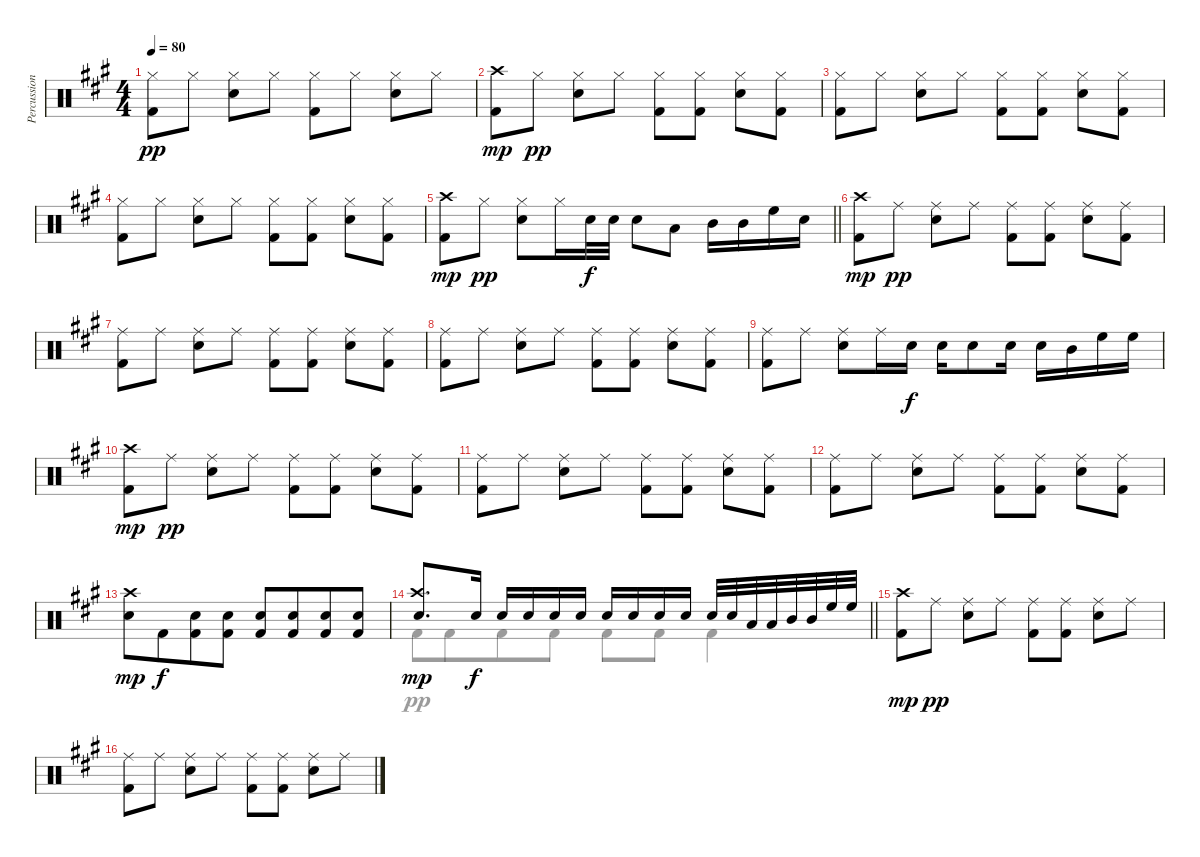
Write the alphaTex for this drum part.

\track ("Percussion" "Percussion") {instrument percussion}
\staff {score}
\articulation defaults
\voice
\ts (4 4)
\tempo 80
\clef neutral
\ks a
("Hi-Hat (closed)" "Kick (hit) 2").8{dy pp} "Hi-Hat (closed)".8 ("Hi-Hat (closed)" "Electric Snare (hit)").8 "Hi-Hat (closed)".8 ("Hi-Hat (closed)" "Kick (hit) 2").8 "Hi-Hat (closed)".8 ("Hi-Hat (closed)" "Electric Snare (hit)").8 "Hi-Hat (closed)".8 |
("Crash high (hit)" "Kick (hit) 2").8{dy mp} "Hi-Hat (closed)".8{dy pp} ("Hi-Hat (closed)" "Electric Snare (hit)").8 "Hi-Hat (closed)".8 ("Hi-Hat (closed)" "Kick (hit) 2").8 ("Hi-Hat (closed)" "Kick (hit) 2").8 ("Hi-Hat (closed)" "Electric Snare (hit)").8 ("Hi-Hat (closed)" "Kick (hit) 2").8 |
("Hi-Hat (closed)" "Kick (hit) 2").8 "Hi-Hat (closed)".8 ("Hi-Hat (closed)" "Electric Snare (hit)").8 "Hi-Hat (closed)".8 ("Hi-Hat (closed)" "Kick (hit) 2").8 ("Hi-Hat (closed)" "Kick (hit) 2").8 ("Hi-Hat (closed)" "Electric Snare (hit)").8 ("Hi-Hat (closed)" "Kick (hit) 2").8 |
("Hi-Hat (closed)" "Kick (hit) 2").8 "Hi-Hat (closed)".8 ("Hi-Hat (closed)" "Electric Snare (hit)").8 "Hi-Hat (closed)".8 ("Hi-Hat (closed)" "Kick (hit) 2").8 ("Hi-Hat (closed)" "Kick (hit) 2").8 ("Hi-Hat (closed)" "Electric Snare (hit)").8 ("Hi-Hat (closed)" "Kick (hit) 2").8 |
\barLineRight lightlight
("Crash high (hit)" "Kick (hit) 2").8{dy mp} "Hi-Hat (closed)".8{dy pp} ("Hi-Hat (closed)" "Electric Snare (hit)").8 "Hi-Hat (closed)".16 "Electric Snare (hit)".32{dy f} "Electric Snare (hit)".32 "Electric Snare (hit)".8 "Low Tom (hit)".8 "Mid Tom (hit)".16 "Mid Tom (hit)".16 "High Floor Tom (hit)".16 "Electric Snare (hit)".16 |
("Crash high (hit)" "Kick (hit) 2").8{dy mp} "Ride (middle)".8{dy pp} ("Ride (middle)" "Electric Snare (hit)").8 "Ride (middle)".8 ("Ride (middle)" "Kick (hit) 2").8 ("Ride (middle)" "Kick (hit) 2").8 ("Ride (middle)" "Electric Snare (hit)").8 ("Ride (middle)" "Kick (hit) 2").8 |
("Ride (middle)" "Kick (hit) 2").8 "Ride (middle)".8 ("Ride (middle)" "Electric Snare (hit)").8 "Ride (middle)".8 ("Ride (middle)" "Kick (hit) 2").8 ("Ride (middle)" "Kick (hit) 2").8 ("Ride (middle)" "Electric Snare (hit)").8 ("Ride (middle)" "Kick (hit) 2").8 |
("Ride (middle)" "Kick (hit) 2").8 "Ride (middle)".8 ("Ride (middle)" "Electric Snare (hit)").8 "Ride (middle)".8 ("Ride (middle)" "Kick (hit) 2").8 ("Ride (middle)" "Kick (hit) 2").8 ("Ride (middle)" "Electric Snare (hit)").8 ("Ride (middle)" "Kick (hit) 2").8 |
("Ride (middle)" "Kick (hit) 2").8 "Ride (middle)".8 ("Ride (middle)" "Electric Snare (hit)").8 "Ride (middle)".16 "Electric Snare (hit)".16{dy f} "Electric Snare (hit)".16 "Electric Snare (hit)".8 "Electric Snare (hit)".16 "Electric Snare (hit)".16 "Mid Tom (hit)".16 "High Floor Tom (hit)".16 "High Floor Tom (hit)".16 |
("Crash high (hit)" "Kick (hit) 2").8{dy mp} "Ride (middle)".8{dy pp} ("Ride (middle)" "Electric Snare (hit)").8 "Ride (middle)".8 ("Ride (middle)" "Kick (hit) 2").8 ("Ride (middle)" "Kick (hit) 2").8 ("Ride (middle)" "Electric Snare (hit)").8 ("Ride (middle)" "Kick (hit) 2").8 |
("Ride (middle)" "Kick (hit) 2").8 "Ride (middle)".8 ("Ride (middle)" "Electric Snare (hit)").8 "Ride (middle)".8 ("Ride (middle)" "Kick (hit) 2").8 ("Ride (middle)" "Kick (hit) 2").8 ("Ride (middle)" "Electric Snare (hit)").8 ("Ride (middle)" "Kick (hit) 2").8 |
("Ride (middle)" "Kick (hit) 2").8 "Ride (middle)".8 ("Ride (middle)" "Electric Snare (hit)").8 "Ride (middle)".8 ("Ride (middle)" "Kick (hit) 2").8 ("Ride (middle)" "Kick (hit) 2").8 ("Ride (middle)" "Electric Snare (hit)").8 ("Ride (middle)" "Kick (hit) 2").8 |
("Crash high (hit)" "Electric Snare (hit)").8{dy mp beam merge} "Kick (hit) 2".8{dy f beam merge} ("Electric Snare (hit)" "Kick (hit) 2").8{beam merge} ("Electric Snare (hit)" "Kick (hit) 2").8 ("Electric Snare (hit)" "Kick (hit) 2").8 ("Electric Snare (hit)" "Kick (hit) 2").8{beam merge} ("Electric Snare (hit)" "Kick (hit) 2").8 ("Electric Snare (hit)" "Kick (hit) 2").8 |
\barLineRight lightlight
("Crash high (hit)" "Electric Snare (hit)").8{d dy mp} "Electric Snare (hit)".16{dy f} "Electric Snare (hit)".16 "Electric Snare (hit)".16 "Electric Snare (hit)".16 "Electric Snare (hit)".16 "Electric Snare (hit)".16 "Electric Snare (hit)".16 "Electric Snare (hit)".16 "Electric Snare (hit)".16 "Electric Snare (hit)".32 "Electric Snare (hit)".32 "Low Tom (hit)".32 "Low Tom (hit)".32 "Mid Tom (hit)".32 "Mid Tom (hit)".32 "High Floor Tom (hit)".32 "High Floor Tom (hit)".32 |
("Crash high (hit)" "Kick (hit) 2").8{dy mp} "Ride (middle)".8{dy pp} ("Ride (middle)" "Electric Snare (hit)").8 "Ride (middle)".8 ("Ride (middle)" "Kick (hit) 2").8 ("Ride (middle)" "Kick (hit) 2").8 ("Ride (middle)" "Electric Snare (hit)").8 "Ride (middle)".8 |
("Ride (middle)" "Kick (hit) 2").8 "Ride (middle)".8 ("Ride (middle)" "Electric Snare (hit)").8 "Ride (middle)".8 ("Ride (middle)" "Kick (hit) 2").8 ("Ride (middle)" "Kick (hit) 2").8 ("Ride (middle)" "Electric Snare (hit)").8 "Ride (middle)".8
\voice
\clef neutral
\ottava regular
\simile none
\ks a
|
|
|
|
\barLineRight lightlight
|
|
|
|
|
|
|
|
|
\barLineRight lightlight "Kick (hit) 2".8 "Kick (hit) 2".8{beam merge} "Kick (hit) 2".8 "Kick (hit) 2".8 "Kick (hit) 2".8 "Kick (hit) 2".8 "Kick (hit) 2".4
|
|
